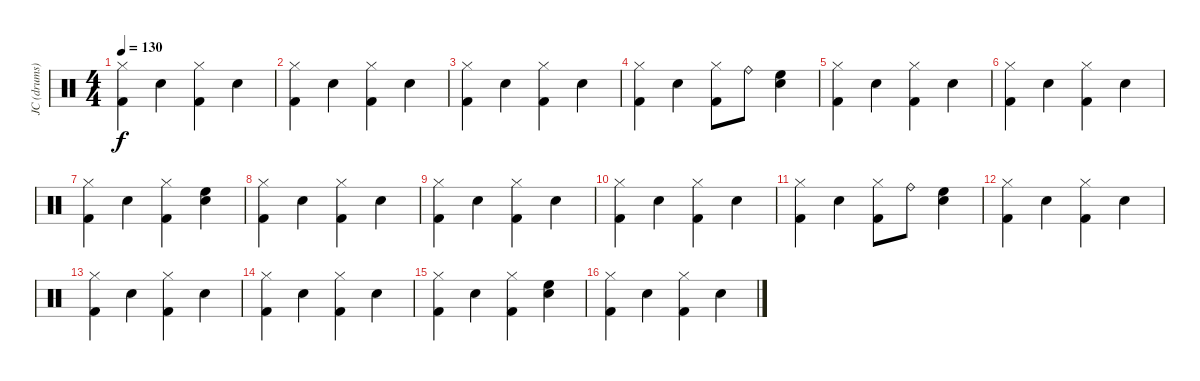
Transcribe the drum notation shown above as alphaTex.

\track ("JC (drums)" "JC (drums)") {instrument percussion}
\staff {score}
\articulation defaults
\ts (4 4)
\tempo 130
\clef neutral
\ks c
("Hi-Hat (closed)" "Kick (hit) 2").4{dy f} "Electric Snare (hit)".4 ("Hi-Hat (closed)" "Kick (hit) 2").4 "Snare (hit) 2".4 |
("Hi-Hat (closed)" "Kick (hit) 2").4 "Electric Snare (hit)".4 ("Hi-Hat (closed)" "Kick (hit) 2").4 "Snare (hit) 2".4 |
("Hi-Hat (closed)" "Kick (hit) 2").4 "Electric Snare (hit)".4 ("Hi-Hat (closed)" "Kick (hit) 2").4 "Snare (hit) 2".4 |
("Hi-Hat (closed)" "Kick (hit) 2").4 "Electric Snare (hit)".4 ("Hi-Hat (closed)" "Kick (hit) 2").8 "Ride (bell)".8 ("High Floor Tom (hit)" "Snare (hit) 2").4 |
("Hi-Hat (closed)" "Kick (hit) 2").4 "Electric Snare (hit)".4 ("Hi-Hat (closed)" "Kick (hit) 2").4 "Snare (hit) 2".4 |
("Hi-Hat (closed)" "Kick (hit) 2").4 "Electric Snare (hit)".4 ("Hi-Hat (closed)" "Kick (hit) 2").4 "Snare (hit) 2".4 |
("Hi-Hat (closed)" "Kick (hit) 2").4 "Electric Snare (hit)".4 ("Hi-Hat (closed)" "Kick (hit) 2").4 ("High Floor Tom (hit)" "Snare (hit) 2").4 |
("Hi-Hat (closed)" "Kick (hit) 2").4 "Electric Snare (hit)".4 ("Hi-Hat (closed)" "Kick (hit) 2").4 "Snare (hit) 2".4 |
("Hi-Hat (closed)" "Kick (hit) 2").4 "Electric Snare (hit)".4 ("Hi-Hat (closed)" "Kick (hit) 2").4 "Snare (hit) 2".4 |
("Hi-Hat (closed)" "Kick (hit) 2").4 "Electric Snare (hit)".4 ("Hi-Hat (closed)" "Kick (hit) 2").4 "Snare (hit) 2".4 |
("Hi-Hat (closed)" "Kick (hit) 2").4 "Electric Snare (hit)".4 ("Hi-Hat (closed)" "Kick (hit) 2").8 "Ride (bell)".8 ("High Floor Tom (hit)" "Snare (hit) 2").4 |
("Hi-Hat (closed)" "Kick (hit) 2").4 "Electric Snare (hit)".4 ("Hi-Hat (closed)" "Kick (hit) 2").4 "Snare (hit) 2".4 |
("Hi-Hat (closed)" "Kick (hit) 2").4 "Electric Snare (hit)".4 ("Hi-Hat (closed)" "Kick (hit) 2").4 "Snare (hit) 2".4 |
("Hi-Hat (closed)" "Kick (hit) 2").4 "Electric Snare (hit)".4 ("Hi-Hat (closed)" "Kick (hit) 2").4 "Snare (hit) 2".4 |
("Hi-Hat (closed)" "Kick (hit) 2").4 "Electric Snare (hit)".4 ("Hi-Hat (closed)" "Kick (hit) 2").4 ("High Floor Tom (hit)" "Snare (hit) 2").4 |
("Hi-Hat (closed)" "Kick (hit) 2").4 "Electric Snare (hit)".4 ("Hi-Hat (closed)" "Kick (hit) 2").4 "Snare (hit) 2".4
